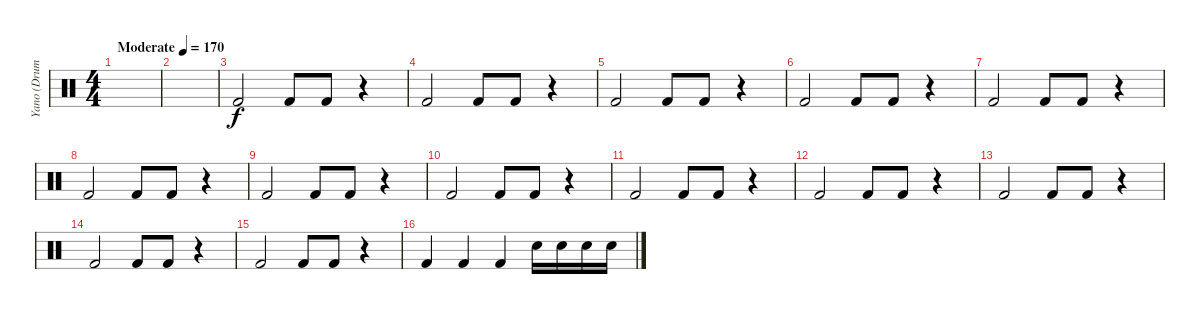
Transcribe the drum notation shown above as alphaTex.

\track ("Yano (Drums)" "Yano (Drum") {instrument percussion}
\staff {score}
\articulation defaults
\ts (4 4)
\tempo (170 "Moderate")
\clef neutral
\ks c
|
|
"Kick (hit) 2".2 "Kick (hit) 2".8 "Kick (hit) 2".8 r.4 |
"Kick (hit) 2".2 "Kick (hit) 2".8 "Kick (hit) 2".8 r.4 |
"Kick (hit) 2".2 "Kick (hit) 2".8 "Kick (hit) 2".8 r.4 |
"Kick (hit) 2".2 "Kick (hit) 2".8 "Kick (hit) 2".8 r.4 |
"Kick (hit) 2".2 "Kick (hit) 2".8 "Kick (hit) 2".8 r.4 |
"Kick (hit) 2".2 "Kick (hit) 2".8 "Kick (hit) 2".8 r.4 |
"Kick (hit) 2".2 "Kick (hit) 2".8 "Kick (hit) 2".8 r.4 |
"Kick (hit) 2".2 "Kick (hit) 2".8 "Kick (hit) 2".8 r.4 |
"Kick (hit) 2".2 "Kick (hit) 2".8 "Kick (hit) 2".8 r.4 |
"Kick (hit) 2".2 "Kick (hit) 2".8 "Kick (hit) 2".8 r.4 |
"Kick (hit) 2".2 "Kick (hit) 2".8 "Kick (hit) 2".8 r.4 |
"Kick (hit) 2".2 "Kick (hit) 2".8 "Kick (hit) 2".8 r.4 |
"Kick (hit) 2".2 "Kick (hit) 2".8 "Kick (hit) 2".8 r.4 |
"Kick (hit) 2".4 "Kick (hit) 2".4 "Kick (hit) 2".4 "Electric Snare (hit)".16 "Electric Snare (hit)".16 "Electric Snare (hit)".16 "Electric Snare (hit)".16
